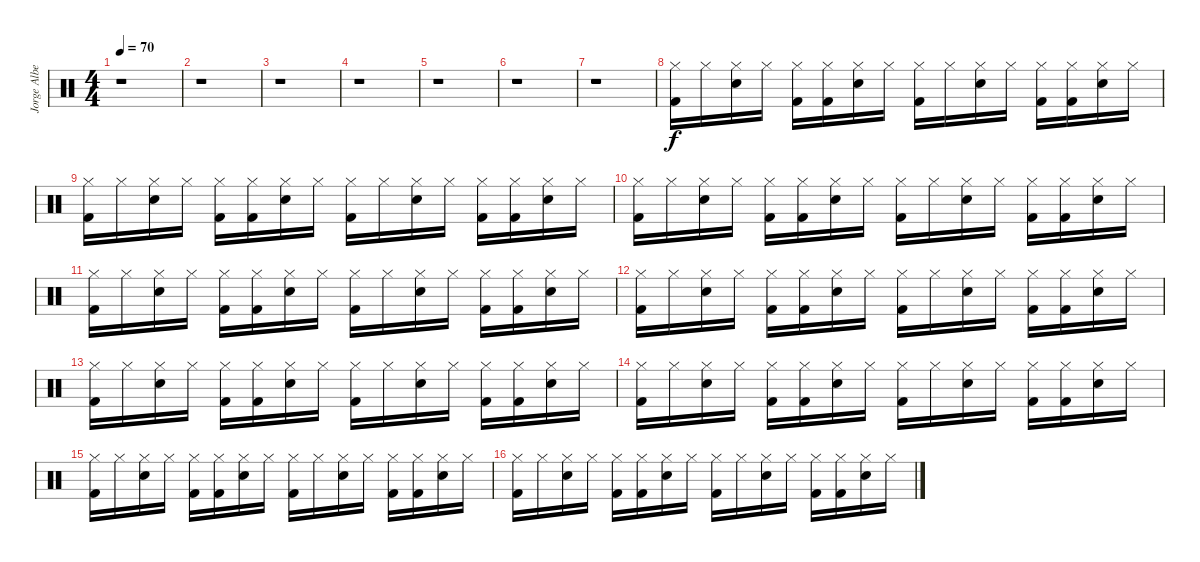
\track ("Jorge Alberti" "Jorge Albe") {instrument percussion}
\staff {score}
\articulation defaults
\ts (4 4)
\tempo 70
\clef neutral
\ks c
r.1{dy f} |
r.1 |
r.1 |
r.1 |
r.1 |
r.1 |
r.1 |
("Hi-Hat (closed)" "Kick (hit) 2").16 "Hi-Hat (closed)".16 ("Hi-Hat (closed)" "Snare (hit) 2").16 "Hi-Hat (closed)".16 ("Hi-Hat (closed)" "Kick (hit) 2").16 ("Hi-Hat (closed)" "Kick (hit) 2").16 ("Hi-Hat (closed)" "Snare (hit) 2").16 "Hi-Hat (closed)".16 ("Hi-Hat (closed)" "Kick (hit) 2").16 "Hi-Hat (closed)".16 ("Hi-Hat (closed)" "Snare (hit) 2").16 "Hi-Hat (closed)".16 ("Hi-Hat (closed)" "Kick (hit) 2").16 ("Hi-Hat (closed)" "Kick (hit) 2").16 ("Hi-Hat (closed)" "Snare (hit) 2").16 "Hi-Hat (closed)".16 |
("Hi-Hat (closed)" "Kick (hit) 2").16 "Hi-Hat (closed)".16 ("Hi-Hat (closed)" "Snare (hit) 2").16 "Hi-Hat (closed)".16 ("Hi-Hat (closed)" "Kick (hit) 2").16 ("Hi-Hat (closed)" "Kick (hit) 2").16 ("Hi-Hat (closed)" "Snare (hit) 2").16 "Hi-Hat (closed)".16 ("Hi-Hat (closed)" "Kick (hit) 2").16 "Hi-Hat (closed)".16 ("Hi-Hat (closed)" "Snare (hit) 2").16 "Hi-Hat (closed)".16 ("Hi-Hat (closed)" "Kick (hit) 2").16 ("Hi-Hat (closed)" "Kick (hit) 2").16 ("Hi-Hat (closed)" "Snare (hit) 2").16 "Hi-Hat (closed)".16 |
("Hi-Hat (closed)" "Kick (hit) 2").16 "Hi-Hat (closed)".16 ("Hi-Hat (closed)" "Snare (hit) 2").16 "Hi-Hat (closed)".16 ("Hi-Hat (closed)" "Kick (hit) 2").16 ("Hi-Hat (closed)" "Kick (hit) 2").16 ("Hi-Hat (closed)" "Snare (hit) 2").16 "Hi-Hat (closed)".16 ("Hi-Hat (closed)" "Kick (hit) 2").16 "Hi-Hat (closed)".16 ("Hi-Hat (closed)" "Snare (hit) 2").16 "Hi-Hat (closed)".16 ("Hi-Hat (closed)" "Kick (hit) 2").16 ("Hi-Hat (closed)" "Kick (hit) 2").16 ("Hi-Hat (closed)" "Snare (hit) 2").16 "Hi-Hat (closed)".16 |
("Hi-Hat (closed)" "Kick (hit) 2").16 "Hi-Hat (closed)".16 ("Hi-Hat (closed)" "Snare (hit) 2").16 "Hi-Hat (closed)".16 ("Hi-Hat (closed)" "Kick (hit) 2").16 ("Hi-Hat (closed)" "Kick (hit) 2").16 ("Hi-Hat (closed)" "Snare (hit) 2").16 "Hi-Hat (closed)".16 ("Hi-Hat (closed)" "Kick (hit) 2").16 "Hi-Hat (closed)".16 ("Hi-Hat (closed)" "Snare (hit) 2").16 "Hi-Hat (closed)".16 ("Hi-Hat (closed)" "Kick (hit) 2").16 ("Hi-Hat (closed)" "Kick (hit) 2").16 ("Hi-Hat (closed)" "Snare (hit) 2").16 "Hi-Hat (closed)".16 |
("Hi-Hat (closed)" "Kick (hit) 2").16 "Hi-Hat (closed)".16 ("Hi-Hat (closed)" "Snare (hit) 2").16 "Hi-Hat (closed)".16 ("Hi-Hat (closed)" "Kick (hit) 2").16 ("Hi-Hat (closed)" "Kick (hit) 2").16 ("Hi-Hat (closed)" "Snare (hit) 2").16 "Hi-Hat (closed)".16 ("Hi-Hat (closed)" "Kick (hit) 2").16 "Hi-Hat (closed)".16 ("Hi-Hat (closed)" "Snare (hit) 2").16 "Hi-Hat (closed)".16 ("Hi-Hat (closed)" "Kick (hit) 2").16 ("Hi-Hat (closed)" "Kick (hit) 2").16 ("Hi-Hat (closed)" "Snare (hit) 2").16 "Hi-Hat (closed)".16 |
("Hi-Hat (closed)" "Kick (hit) 2").16 "Hi-Hat (closed)".16 ("Hi-Hat (closed)" "Snare (hit) 2").16 "Hi-Hat (closed)".16 ("Hi-Hat (closed)" "Kick (hit) 2").16 ("Hi-Hat (closed)" "Kick (hit) 2").16 ("Hi-Hat (closed)" "Snare (hit) 2").16 "Hi-Hat (closed)".16 ("Hi-Hat (closed)" "Kick (hit) 2").16 "Hi-Hat (closed)".16 ("Hi-Hat (closed)" "Snare (hit) 2").16 "Hi-Hat (closed)".16 ("Hi-Hat (closed)" "Kick (hit) 2").16 ("Hi-Hat (closed)" "Kick (hit) 2").16 ("Hi-Hat (closed)" "Snare (hit) 2").16 "Hi-Hat (closed)".16 |
("Hi-Hat (closed)" "Kick (hit) 2").16 "Hi-Hat (closed)".16 ("Hi-Hat (closed)" "Snare (hit) 2").16 "Hi-Hat (closed)".16 ("Hi-Hat (closed)" "Kick (hit) 2").16 ("Hi-Hat (closed)" "Kick (hit) 2").16 ("Hi-Hat (closed)" "Snare (hit) 2").16 "Hi-Hat (closed)".16 ("Hi-Hat (closed)" "Kick (hit) 2").16 "Hi-Hat (closed)".16 ("Hi-Hat (closed)" "Snare (hit) 2").16 "Hi-Hat (closed)".16 ("Hi-Hat (closed)" "Kick (hit) 2").16 ("Hi-Hat (closed)" "Kick (hit) 2").16 ("Hi-Hat (closed)" "Snare (hit) 2").16 "Hi-Hat (closed)".16 |
("Hi-Hat (closed)" "Kick (hit) 2").16 "Hi-Hat (closed)".16 ("Hi-Hat (closed)" "Snare (hit) 2").16 "Hi-Hat (closed)".16 ("Hi-Hat (closed)" "Kick (hit) 2").16 ("Hi-Hat (closed)" "Kick (hit) 2").16 ("Hi-Hat (closed)" "Snare (hit) 2").16 "Hi-Hat (closed)".16 ("Hi-Hat (closed)" "Kick (hit) 2").16 "Hi-Hat (closed)".16 ("Hi-Hat (closed)" "Snare (hit) 2").16 "Hi-Hat (closed)".16 ("Hi-Hat (closed)" "Kick (hit) 2").16 ("Hi-Hat (closed)" "Kick (hit) 2").16 ("Hi-Hat (closed)" "Snare (hit) 2").16 "Hi-Hat (closed)".16 |
("Hi-Hat (closed)" "Kick (hit) 2").16 "Hi-Hat (closed)".16 ("Hi-Hat (closed)" "Snare (hit) 2").16 "Hi-Hat (closed)".16 ("Hi-Hat (closed)" "Kick (hit) 2").16 ("Hi-Hat (closed)" "Kick (hit) 2").16 ("Hi-Hat (closed)" "Snare (hit) 2").16 "Hi-Hat (closed)".16 ("Hi-Hat (closed)" "Kick (hit) 2").16 "Hi-Hat (closed)".16 ("Hi-Hat (closed)" "Snare (hit) 2").16 "Hi-Hat (closed)".16 ("Hi-Hat (closed)" "Kick (hit) 2").16 ("Hi-Hat (closed)" "Kick (hit) 2").16 ("Hi-Hat (closed)" "Snare (hit) 2").16 "Hi-Hat (closed)".16
